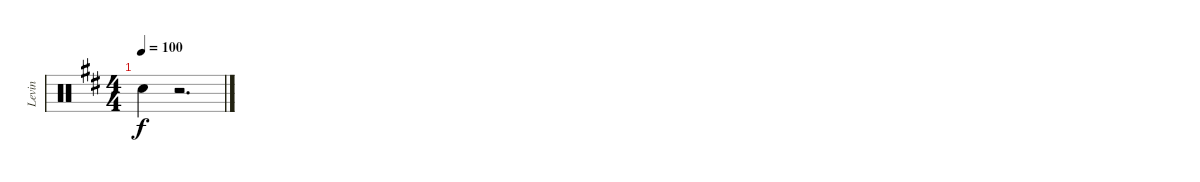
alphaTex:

\track ("Levin" "Levin") {instrument percussion}
\staff {score}
\articulation defaults
\ts (4 4)
\tempo 100
\clef neutral
\ks d "Electric Snare (hit)".4{dy f}
r.2{d}
